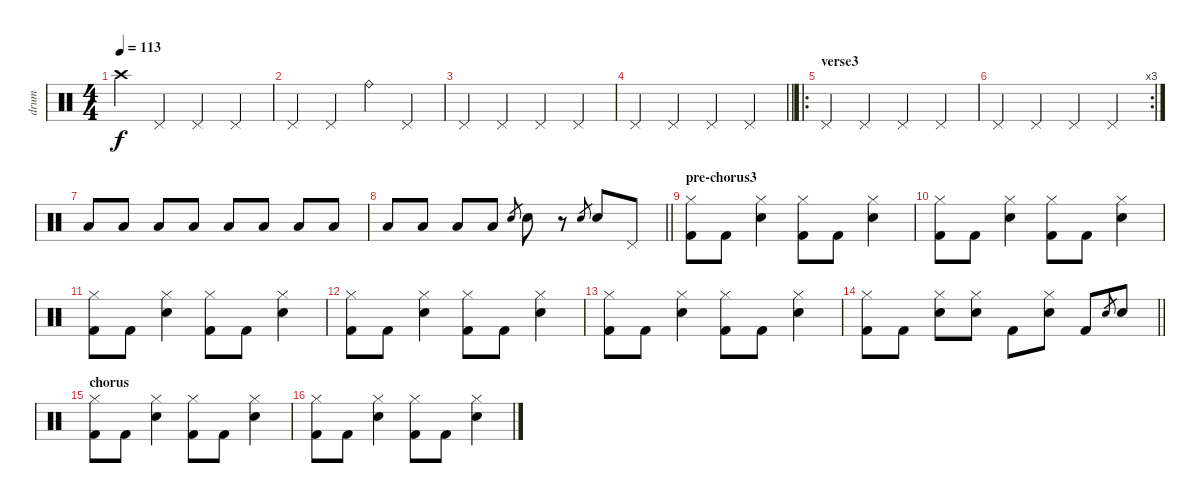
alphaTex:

\track ("drum" "drum") {instrument percussion}
\staff {score}
\articulation defaults
\ts (4 4)
\tempo 113
\clef neutral
\ks c "Crash high (hit)".4{dy f} "Pedal Hi-Hat (hit)".4 "Pedal Hi-Hat (hit)".4 "Pedal Hi-Hat (hit)".4
|
"Pedal Hi-Hat (hit)".4 "Pedal Hi-Hat (hit)".4 "Ride (bell)".4 "Pedal Hi-Hat (hit)".4 |
"Pedal Hi-Hat (hit)".4 "Pedal Hi-Hat (hit)".4 "Pedal Hi-Hat (hit)".4 "Pedal Hi-Hat (hit)".4 |
\barLineRight lightlight "Pedal Hi-Hat (hit)".4 "Pedal Hi-Hat (hit)".4 "Pedal Hi-Hat (hit)".4 "Pedal Hi-Hat (hit)".4
|
\ro
\section ("" "verse3")
"Pedal Hi-Hat (hit)".4 "Pedal Hi-Hat (hit)".4 "Pedal Hi-Hat (hit)".4 "Pedal Hi-Hat (hit)".4 |
\rc 3 "Pedal Hi-Hat (hit)".4 "Pedal Hi-Hat (hit)".4 "Pedal Hi-Hat (hit)".4 "Pedal Hi-Hat (hit)".4
|
"Low Tom (hit)".8{volume 3} "Low Tom (hit)".8 "Low Tom (hit)".8 "Low Tom (hit)".8{volume 8} "Low Tom (hit)".8 "Low Tom (hit)".8 "Low Tom (hit)".8{volume 12} "Low Tom (hit)".8 |
\barLineRight lightlight "Low Tom (hit)".8 "Low Tom (hit)".8{volume 16} "Low Tom (hit)".8 "Low Tom (hit)".8 "Electric Snare (hit)".8{gr} "Electric Snare (hit)".8
r.8 "Electric Snare (hit)".8{gr} "Electric Snare (hit)".8 "Pedal Hi-Hat (hit)".8 |
\section ("" "pre-chorus3")
("Kick (hit) 2" "Hi-Hat (closed)").8 "Kick (hit) 2".8 ("Electric Snare (hit)" "Hi-Hat (closed)").4 ("Kick (hit) 2" "Hi-Hat (closed)").8 "Kick (hit) 2".8 ("Electric Snare (hit)" "Hi-Hat (closed)").4 |
("Kick (hit) 2" "Hi-Hat (closed)").8 "Kick (hit) 2".8 ("Electric Snare (hit)" "Hi-Hat (closed)").4 ("Kick (hit) 2" "Hi-Hat (closed)").8 "Kick (hit) 2".8 ("Electric Snare (hit)" "Hi-Hat (closed)").4 |
("Kick (hit) 2" "Hi-Hat (closed)").8 "Kick (hit) 2".8 ("Electric Snare (hit)" "Hi-Hat (closed)").4 ("Kick (hit) 2" "Hi-Hat (closed)").8 "Kick (hit) 2".8 ("Electric Snare (hit)" "Hi-Hat (closed)").4 |
("Kick (hit) 2" "Hi-Hat (closed)").8 "Kick (hit) 2".8 ("Electric Snare (hit)" "Hi-Hat (closed)").4 ("Kick (hit) 2" "Hi-Hat (closed)").8 "Kick (hit) 2".8 ("Electric Snare (hit)" "Hi-Hat (closed)").4 |
("Kick (hit) 2" "Hi-Hat (closed)").8 "Kick (hit) 2".8 ("Electric Snare (hit)" "Hi-Hat (closed)").4 ("Kick (hit) 2" "Hi-Hat (closed)").8 "Kick (hit) 2".8 ("Electric Snare (hit)" "Hi-Hat (closed)").4 |
\barLineRight lightlight
("Kick (hit) 2" "Hi-Hat (closed)").8 "Kick (hit) 2".8 ("Electric Snare (hit)" "Hi-Hat (closed)").8 ("Electric Snare (hit)" "Hi-Hat (closed)").8 "Kick (hit) 2".8 ("Electric Snare (hit)" "Hi-Hat (closed)").8 "Kick (hit) 2".8 "Electric Snare (hit)".8{gr} "Electric Snare (hit)".8 |
\section ("" "chorus")
("Kick (hit) 2" "Hi-Hat (closed)").8 "Kick (hit) 2".8 ("Electric Snare (hit)" "Hi-Hat (closed)").4 ("Kick (hit) 2" "Hi-Hat (closed)").8 "Kick (hit) 2".8 ("Electric Snare (hit)" "Hi-Hat (closed)").4 |
("Kick (hit) 2" "Hi-Hat (closed)").8 "Kick (hit) 2".8 ("Electric Snare (hit)" "Hi-Hat (closed)").4 ("Kick (hit) 2" "Hi-Hat (closed)").8 "Kick (hit) 2".8 ("Electric Snare (hit)" "Hi-Hat (closed)").4
